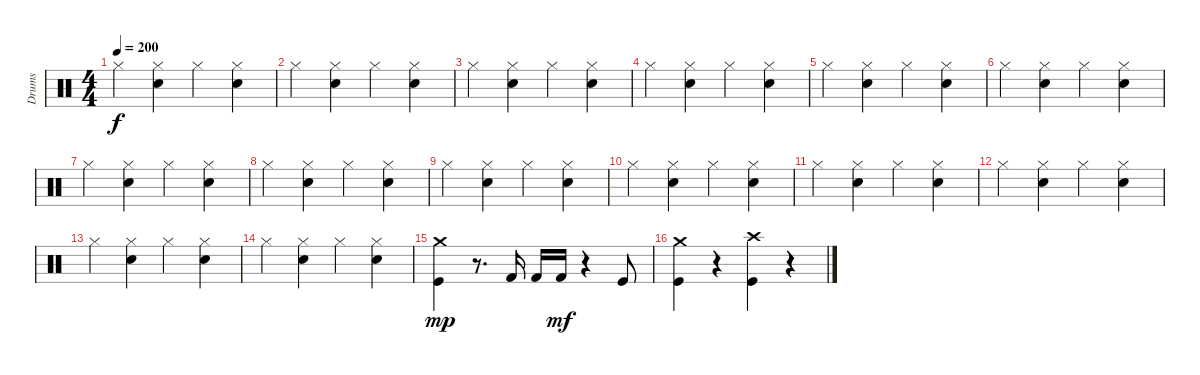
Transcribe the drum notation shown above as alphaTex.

\track ("Drums" "Drums") {instrument percussion}
\staff {score}
\articulation defaults
\ts (4 4)
\tempo 200
\clef neutral
\ks c "Hi-Hat (closed)".4{dy f}
("Snare (hit) 2" "Hi-Hat (closed)").4 "Hi-Hat (closed)".4 ("Snare (hit) 2" "Hi-Hat (closed)").4 |
"Hi-Hat (closed)".4 ("Snare (hit) 2" "Hi-Hat (closed)").4 "Hi-Hat (closed)".4 ("Snare (hit) 2" "Hi-Hat (closed)").4 |
"Hi-Hat (closed)".4 ("Snare (hit) 2" "Hi-Hat (closed)").4 "Hi-Hat (closed)".4 ("Snare (hit) 2" "Hi-Hat (closed)").4 |
"Hi-Hat (closed)".4 ("Snare (hit) 2" "Hi-Hat (closed)").4 "Hi-Hat (closed)".4 ("Snare (hit) 2" "Hi-Hat (closed)").4 |
"Hi-Hat (closed)".4 ("Snare (hit) 2" "Hi-Hat (closed)").4 "Hi-Hat (closed)".4 ("Snare (hit) 2" "Hi-Hat (closed)").4 |
"Hi-Hat (closed)".4 ("Snare (hit) 2" "Hi-Hat (closed)").4 "Hi-Hat (closed)".4 ("Snare (hit) 2" "Hi-Hat (closed)").4 |
"Hi-Hat (closed)".4 ("Snare (hit) 2" "Hi-Hat (closed)").4 "Hi-Hat (closed)".4 ("Snare (hit) 2" "Hi-Hat (closed)").4 |
"Hi-Hat (closed)".4 ("Snare (hit) 2" "Hi-Hat (closed)").4 "Hi-Hat (closed)".4 ("Snare (hit) 2" "Hi-Hat (closed)").4 |
"Hi-Hat (closed)".4 ("Snare (hit) 2" "Hi-Hat (closed)").4 "Hi-Hat (closed)".4 ("Snare (hit) 2" "Hi-Hat (closed)").4 |
"Hi-Hat (closed)".4 ("Snare (hit) 2" "Hi-Hat (closed)").4 "Hi-Hat (closed)".4 ("Snare (hit) 2" "Hi-Hat (closed)").4 |
"Hi-Hat (closed)".4 ("Snare (hit) 2" "Hi-Hat (closed)").4 "Hi-Hat (closed)".4 ("Snare (hit) 2" "Hi-Hat (closed)").4 |
"Hi-Hat (closed)".4 ("Snare (hit) 2" "Hi-Hat (closed)").4 "Hi-Hat (closed)".4 ("Snare (hit) 2" "Hi-Hat (closed)").4 |
"Hi-Hat (closed)".4 ("Snare (hit) 2" "Hi-Hat (closed)").4 "Hi-Hat (closed)".4 ("Snare (hit) 2" "Hi-Hat (closed)").4 |
"Hi-Hat (closed)".4 ("Snare (hit) 2" "Hi-Hat (closed)").4 "Hi-Hat (closed)".4 ("Snare (hit) 2" "Hi-Hat (closed)").4 |
("Crash medium (hit)" "Kick (hit)").4{dy mp} r.8{d} "Kick (hit) 2".16 "Kick (hit) 2".16 "Kick (hit) 2".16{dy mf} r.4 "Kick (hit)".8 |
("Kick (hit)" "Crash medium (hit)").4 r.4 ("Crash high (hit)" "Kick (hit)").4 r.4
